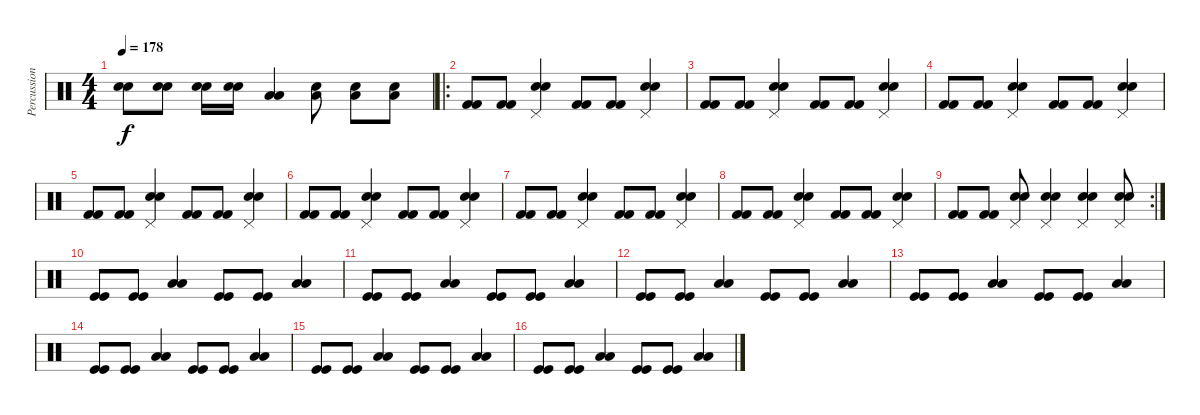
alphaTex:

\track ("Percussion" "Percussion") {instrument percussion}
\staff {score}
\articulation defaults
\ts (4 4)
\tempo 178
\clef neutral
\ks c
("Snare (hit) 2" "Electric Snare (hit)").8{dy f} ("Snare (hit) 2" "Electric Snare (hit)").8 ("Electric Snare (hit)" "Electric Snare (hit)").16 ("Electric Snare (hit)" "Electric Snare (hit)").16 ("Low Tom (hit)" "Low Tom (hit)").4 ("Low Tom (hit)" "Snare (hit) 2").8 ("Low Tom (hit)" "Snare (hit) 2").8 ("Low Tom (hit)" "Snare (hit) 2").8 |
\ro
("Kick (hit) 2" "Kick (hit) 2").8 ("Kick (hit) 2" "Kick (hit) 2").8 ("Snare (hit) 2" "Electric Snare (hit)" "Pedal Hi-Hat (hit)").4 ("Kick (hit) 2" "Kick (hit) 2").8 ("Kick (hit) 2" "Kick (hit) 2").8 ("Snare (hit) 2" "Electric Snare (hit)" "Pedal Hi-Hat (hit)").4 |
("Kick (hit) 2" "Kick (hit) 2").8 ("Kick (hit) 2" "Kick (hit) 2").8 ("Snare (hit) 2" "Electric Snare (hit)" "Pedal Hi-Hat (hit)").4 ("Kick (hit) 2" "Kick (hit) 2").8 ("Kick (hit) 2" "Kick (hit) 2").8 ("Snare (hit) 2" "Electric Snare (hit)" "Pedal Hi-Hat (hit)").4 |
("Kick (hit) 2" "Kick (hit) 2").8 ("Kick (hit) 2" "Kick (hit) 2").8 ("Snare (hit) 2" "Electric Snare (hit)" "Pedal Hi-Hat (hit)").4 ("Kick (hit) 2" "Kick (hit) 2").8 ("Kick (hit) 2" "Kick (hit) 2").8 ("Snare (hit) 2" "Electric Snare (hit)" "Pedal Hi-Hat (hit)").4 |
("Kick (hit) 2" "Kick (hit) 2").8 ("Kick (hit) 2" "Kick (hit) 2").8 ("Snare (hit) 2" "Electric Snare (hit)" "Pedal Hi-Hat (hit)").4 ("Kick (hit) 2" "Kick (hit) 2").8 ("Kick (hit) 2" "Kick (hit) 2").8 ("Snare (hit) 2" "Electric Snare (hit)" "Pedal Hi-Hat (hit)").4 |
("Kick (hit) 2" "Kick (hit) 2").8 ("Kick (hit) 2" "Kick (hit) 2").8 ("Snare (hit) 2" "Electric Snare (hit)" "Pedal Hi-Hat (hit)").4 ("Kick (hit) 2" "Kick (hit) 2").8 ("Kick (hit) 2" "Kick (hit) 2").8 ("Snare (hit) 2" "Electric Snare (hit)" "Pedal Hi-Hat (hit)").4 |
("Kick (hit) 2" "Kick (hit) 2").8 ("Kick (hit) 2" "Kick (hit) 2").8 ("Snare (hit) 2" "Electric Snare (hit)" "Pedal Hi-Hat (hit)").4 ("Kick (hit) 2" "Kick (hit) 2").8 ("Kick (hit) 2" "Kick (hit) 2").8 ("Snare (hit) 2" "Electric Snare (hit)" "Pedal Hi-Hat (hit)").4 |
("Kick (hit) 2" "Kick (hit) 2").8 ("Kick (hit) 2" "Kick (hit) 2").8 ("Snare (hit) 2" "Electric Snare (hit)" "Pedal Hi-Hat (hit)").4 ("Kick (hit) 2" "Kick (hit) 2").8 ("Kick (hit) 2" "Kick (hit) 2").8 ("Snare (hit) 2" "Electric Snare (hit)" "Pedal Hi-Hat (hit)").4 |
\rc 2
("Kick (hit) 2" "Kick (hit) 2").8 ("Kick (hit) 2" "Kick (hit) 2").8 ("Snare (hit) 2" "Electric Snare (hit)" "Pedal Hi-Hat (hit)").8 ("Snare (hit) 2" "Electric Snare (hit)" "Pedal Hi-Hat (hit)").4 ("Snare (hit) 2" "Electric Snare (hit)" "Pedal Hi-Hat (hit)").4 ("Snare (hit) 2" "Electric Snare (hit)" "Pedal Hi-Hat (hit)").8 |
("Kick (hit)" "Kick (hit)").8 ("Kick (hit)" "Kick (hit)").8 ("Low Tom (hit)" "Low Tom (hit)").4 ("Kick (hit)" "Kick (hit)").8 ("Kick (hit)" "Kick (hit)").8 ("Low Tom (hit)" "Low Tom (hit)").4 |
("Kick (hit)" "Kick (hit)").8 ("Kick (hit)" "Kick (hit)").8 ("Low Tom (hit)" "Low Tom (hit)").4 ("Kick (hit)" "Kick (hit)").8 ("Kick (hit)" "Kick (hit)").8 ("Low Tom (hit)" "Low Tom (hit)").4 |
("Kick (hit)" "Kick (hit)").8 ("Kick (hit)" "Kick (hit)").8 ("Low Tom (hit)" "Low Tom (hit)").4 ("Kick (hit)" "Kick (hit)").8 ("Kick (hit)" "Kick (hit)").8 ("Low Tom (hit)" "Low Tom (hit)").4 |
("Kick (hit)" "Kick (hit)").8 ("Kick (hit)" "Kick (hit)").8 ("Low Tom (hit)" "Low Tom (hit)").4 ("Kick (hit)" "Kick (hit)").8 ("Kick (hit)" "Kick (hit)").8 ("Low Tom (hit)" "Low Tom (hit)").4 |
("Kick (hit)" "Kick (hit)").8 ("Kick (hit)" "Kick (hit)").8 ("Low Tom (hit)" "Low Tom (hit)").4 ("Kick (hit)" "Kick (hit)").8 ("Kick (hit)" "Kick (hit)").8 ("Low Tom (hit)" "Low Tom (hit)").4 |
("Kick (hit)" "Kick (hit)").8 ("Kick (hit)" "Kick (hit)").8 ("Low Tom (hit)" "Low Tom (hit)").4 ("Kick (hit)" "Kick (hit)").8 ("Kick (hit)" "Kick (hit)").8 ("Low Tom (hit)" "Low Tom (hit)").4 |
("Kick (hit)" "Kick (hit)").8 ("Kick (hit)" "Kick (hit)").8 ("Low Tom (hit)" "Low Tom (hit)").4 ("Kick (hit)" "Kick (hit)").8 ("Kick (hit)" "Kick (hit)").8 ("Low Tom (hit)" "Low Tom (hit)").4
